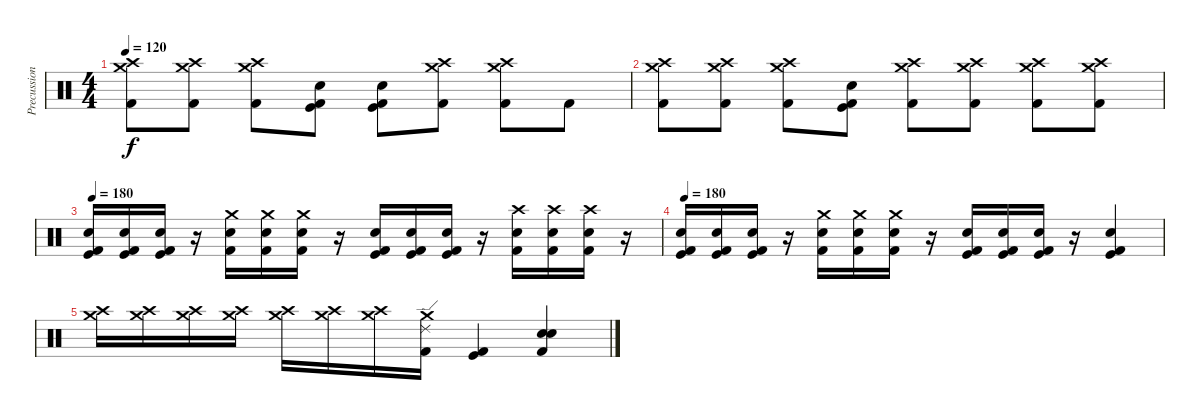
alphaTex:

\track ("Precussion" "Precussion") {instrument percussion}
\staff {score}
\articulation defaults
\ts (4 4)
\tempo 120
\clef neutral
\ks c
("Crash medium (hit)" "Crash high (hit)" "Kick (hit) 2").8{dy f} ("Crash medium (hit)" "Crash high (hit)" "Kick (hit) 2").8 ("Crash medium (hit)" "Crash high (hit)" "Kick (hit) 2").8 ("Kick (hit)" "Snare (hit) 2" "Kick (hit) 2").8 ("Kick (hit)" "Snare (hit) 2" "Kick (hit) 2").8 ("Crash medium (hit)" "Crash high (hit)" "Kick (hit) 2").8 ("Crash medium (hit)" "Crash high (hit)" "Kick (hit) 2").8 "Kick (hit) 2".8 |
("Crash medium (hit)" "Crash high (hit)" "Kick (hit) 2").8 ("Crash medium (hit)" "Crash high (hit)" "Kick (hit) 2").8 ("Crash medium (hit)" "Crash high (hit)" "Kick (hit) 2").8 ("Kick (hit)" "Snare (hit) 2" "Kick (hit) 2").8 ("Crash medium (hit)" "Crash high (hit)" "Kick (hit) 2").8 ("Crash medium (hit)" "Crash high (hit)" "Kick (hit) 2").8 ("Crash medium (hit)" "Crash high (hit)" "Kick (hit) 2").8 ("Crash medium (hit)" "Crash high (hit)" "Kick (hit) 2").8 |
\tempo 180
("Kick (hit)" "Electric Snare (hit)" "Kick (hit) 2").16 ("Kick (hit)" "Electric Snare (hit)" "Kick (hit) 2").16 ("Kick (hit)" "Electric Snare (hit)" "Kick (hit) 2").16 r.16 ("Crash medium (hit)" "Electric Snare (hit)" "Kick (hit) 2").16 ("Crash medium (hit)" "Electric Snare (hit)" "Kick (hit) 2").16 ("Crash medium (hit)" "Electric Snare (hit)" "Kick (hit) 2").16 r.16 ("Kick (hit)" "Electric Snare (hit)" "Kick (hit) 2").16 ("Kick (hit)" "Electric Snare (hit)" "Kick (hit) 2").16 ("Kick (hit)" "Electric Snare (hit)" "Kick (hit) 2").16 r.16 ("Crash high (hit)" "Electric Snare (hit)" "Kick (hit) 2").16 ("Crash high (hit)" "Electric Snare (hit)" "Kick (hit) 2").16 ("Crash high (hit)" "Electric Snare (hit)" "Kick (hit) 2").16 r.16 |
\tempo 180
("Kick (hit)" "Electric Snare (hit)" "Kick (hit) 2").16 ("Kick (hit)" "Electric Snare (hit)" "Kick (hit) 2").16 ("Kick (hit)" "Electric Snare (hit)" "Kick (hit) 2").16 r.16 ("Crash medium (hit)" "Electric Snare (hit)" "Kick (hit) 2").16 ("Crash medium (hit)" "Electric Snare (hit)" "Kick (hit) 2").16 ("Crash medium (hit)" "Electric Snare (hit)" "Kick (hit) 2").16 r.16 ("Kick (hit)" "Electric Snare (hit)" "Kick (hit) 2").16 ("Kick (hit)" "Electric Snare (hit)" "Kick (hit) 2").16 ("Kick (hit)" "Electric Snare (hit)" "Kick (hit) 2").16 r.16 ("Electric Snare (hit)" "Kick (hit)" "Kick (hit) 2").4 |
("Crash medium (hit)" "Crash high (hit)").16 ("Crash medium (hit)" "Crash high (hit)").16 ("Crash medium (hit)" "Crash high (hit)").16 ("Crash medium (hit)" "Crash high (hit)").16 ("Crash medium (hit)" "Crash high (hit)").16 ("Crash medium (hit)" "Crash high (hit)").16 ("Crash medium (hit)" "Crash high (hit)").16 ("Crash medium (hit)" "Ride (edge) 2" "Kick (hit) 2").16 ("Kick (hit)" "Kick (hit) 2").4 ("Electric Snare (hit)" "Kick (hit) 2" "Snare (hit) 2").4
